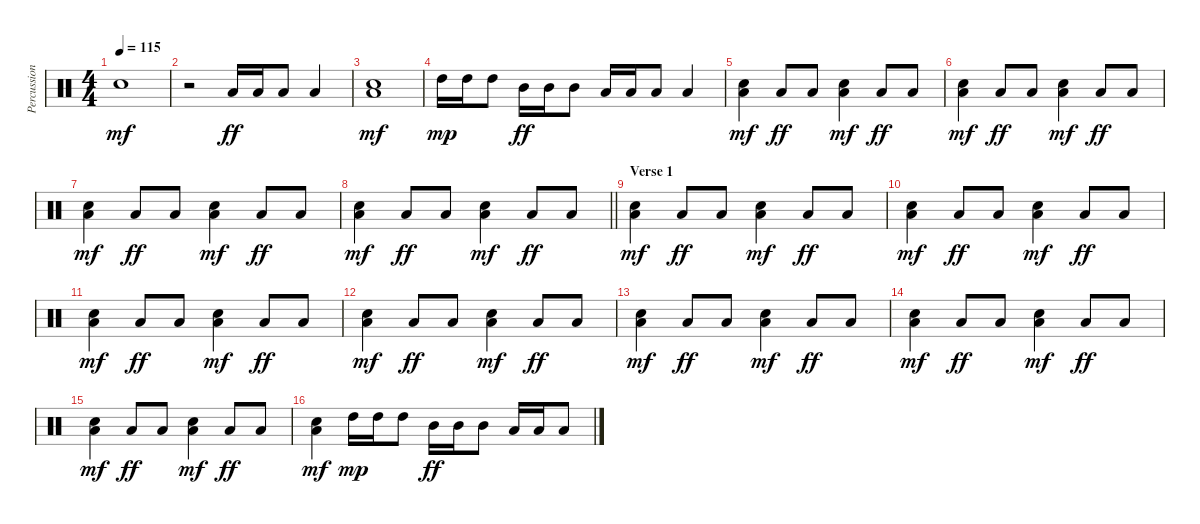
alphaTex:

\track ("Percussion" "Percussion") {instrument percussion}
\staff {score}
\articulation defaults
\ts (4 4)
\tempo 115
\clef neutral
\ks c "Snare (hit) 2".1{dy mf}
|
r.2 "Low Tom (hit)".16{dy ff} "Low Tom (hit)".16 "Low Tom (hit)".8 "Low Floor Tom (hit)".4 |
("Low Floor Tom (hit)" "Snare (hit) 2").1{dy mf} |
"High Tom (hit)".16{dy mp} "High Tom (hit)".16 "High Tom (hit)".8 "Mid Tom (hit)".16{dy ff} "Mid Tom (hit)".16 "Mid Tom (hit)".8 "Low Tom (hit)".16 "Low Tom (hit)".16 "Low Tom (hit)".8 "Low Floor Tom (hit)".4 |
("Low Floor Tom (hit)" "Snare (hit) 2").4{dy mf} "Low Floor Tom (hit)".8{dy ff} "Low Floor Tom (hit)".8 ("Low Floor Tom (hit)" "Snare (hit) 2").4{dy mf} "Low Floor Tom (hit)".8{dy ff} "Low Floor Tom (hit)".8 |
("Low Floor Tom (hit)" "Snare (hit) 2").4{dy mf} "Low Floor Tom (hit)".8{dy ff} "Low Floor Tom (hit)".8 ("Low Floor Tom (hit)" "Snare (hit) 2").4{dy mf} "Low Floor Tom (hit)".8{dy ff} "Low Floor Tom (hit)".8 |
("Low Floor Tom (hit)" "Snare (hit) 2").4{dy mf} "Low Floor Tom (hit)".8{dy ff} "Low Floor Tom (hit)".8 ("Low Floor Tom (hit)" "Snare (hit) 2").4{dy mf} "Low Floor Tom (hit)".8{dy ff} "Low Floor Tom (hit)".8 |
\barLineRight lightlight
("Low Floor Tom (hit)" "Snare (hit) 2").4{dy mf} "Low Floor Tom (hit)".8{dy ff} "Low Floor Tom (hit)".8 ("Low Floor Tom (hit)" "Snare (hit) 2").4{dy mf} "Low Floor Tom (hit)".8{dy ff} "Low Floor Tom (hit)".8 |
\section ("" "Verse 1")
("Low Floor Tom (hit)" "Snare (hit) 2").4{dy mf} "Low Floor Tom (hit)".8{dy ff} "Low Floor Tom (hit)".8 ("Low Floor Tom (hit)" "Snare (hit) 2").4{dy mf} "Low Floor Tom (hit)".8{dy ff} "Low Floor Tom (hit)".8 |
("Low Floor Tom (hit)" "Snare (hit) 2").4{dy mf} "Low Floor Tom (hit)".8{dy ff} "Low Floor Tom (hit)".8 ("Low Floor Tom (hit)" "Snare (hit) 2").4{dy mf} "Low Floor Tom (hit)".8{dy ff} "Low Floor Tom (hit)".8 |
("Low Floor Tom (hit)" "Snare (hit) 2").4{dy mf} "Low Floor Tom (hit)".8{dy ff} "Low Floor Tom (hit)".8 ("Low Floor Tom (hit)" "Snare (hit) 2").4{dy mf} "Low Floor Tom (hit)".8{dy ff} "Low Floor Tom (hit)".8 |
("Low Floor Tom (hit)" "Snare (hit) 2").4{dy mf} "Low Floor Tom (hit)".8{dy ff} "Low Floor Tom (hit)".8 ("Low Floor Tom (hit)" "Snare (hit) 2").4{dy mf} "Low Floor Tom (hit)".8{dy ff} "Low Floor Tom (hit)".8 |
("Low Floor Tom (hit)" "Snare (hit) 2").4{dy mf} "Low Floor Tom (hit)".8{dy ff} "Low Floor Tom (hit)".8 ("Low Floor Tom (hit)" "Snare (hit) 2").4{dy mf} "Low Floor Tom (hit)".8{dy ff} "Low Floor Tom (hit)".8 |
("Low Floor Tom (hit)" "Snare (hit) 2").4{dy mf} "Low Floor Tom (hit)".8{dy ff} "Low Floor Tom (hit)".8 ("Low Floor Tom (hit)" "Snare (hit) 2").4{dy mf} "Low Floor Tom (hit)".8{dy ff} "Low Floor Tom (hit)".8 |
("Low Floor Tom (hit)" "Snare (hit) 2").4{dy mf} "Low Floor Tom (hit)".8{dy ff} "Low Floor Tom (hit)".8 ("Low Floor Tom (hit)" "Snare (hit) 2").4{dy mf} "Low Floor Tom (hit)".8{dy ff} "Low Floor Tom (hit)".8 |
("Low Floor Tom (hit)" "Snare (hit) 2").4{dy mf} "High Tom (hit)".16{dy mp} "High Tom (hit)".16 "High Tom (hit)".8 "Mid Tom (hit)".16{dy ff} "Mid Tom (hit)".16 "Mid Tom (hit)".8 "Low Tom (hit)".16 "Low Tom (hit)".16 "Low Tom (hit)".8
